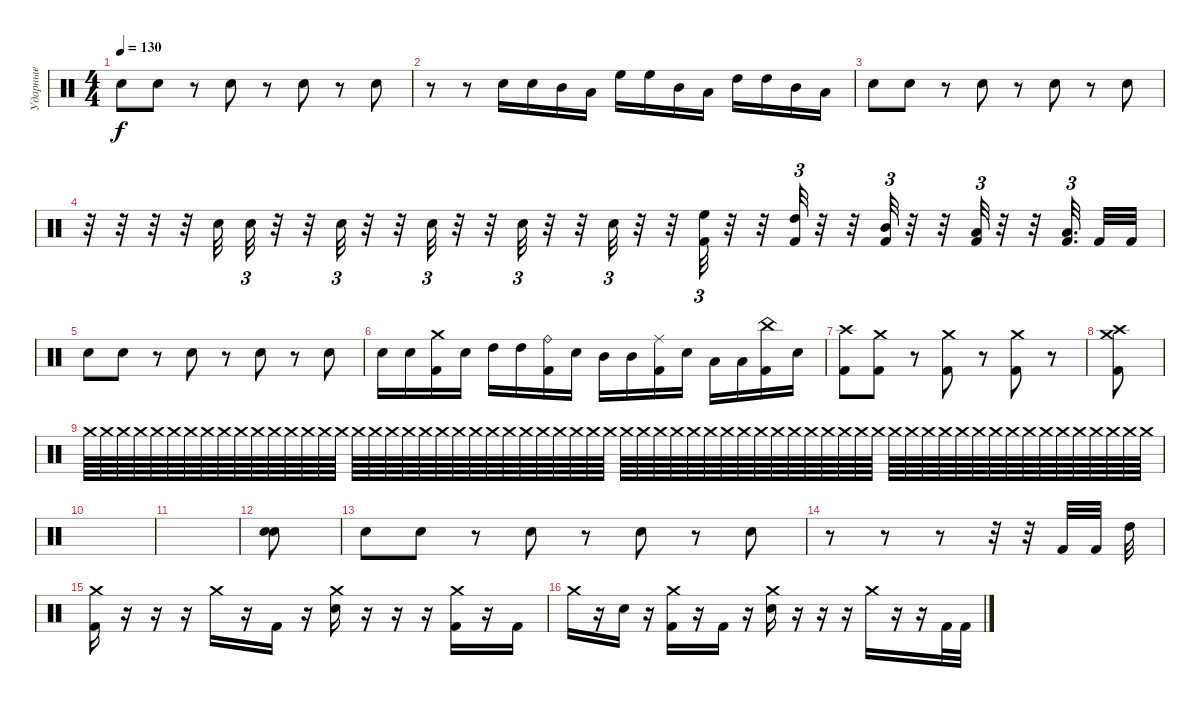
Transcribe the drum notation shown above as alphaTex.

\track ("Ударные" "Ударные") {instrument percussion}
\staff {score}
\articulation defaults
\ts (4 4)
\tempo 130
\clef neutral
\ks c "Electric Snare (hit)".8{dy f} "Electric Snare (hit)".8
r.8 "Electric Snare (hit)".8 r.8 "Electric Snare (hit)".8 r.8 "Electric Snare (hit)".8 |
r.8 r.8 "Electric Snare (hit)".16 "Electric Snare (hit)".16 "Mid Tom (hit)".16 "Low Tom (hit)".16 "High Floor Tom (hit)".16 "High Floor Tom (hit)".16 "Mid Tom (hit)".16 "Low Tom (hit)".16 "High Tom (hit)".16 "High Tom (hit)".16 "Mid Tom (hit)".16 "Low Tom (hit)".16 |
"Electric Snare (hit)".8 "Electric Snare (hit)".8 r.8 "Electric Snare (hit)".8 r.8 "Electric Snare (hit)".8 r.8 "Electric Snare (hit)".8 |
r.32 r.32 r.32 r.32 "Snare (hit) 2".32 "Snare (hit) 2".32{tu (3 2)} r.32 r.32 "Snare (hit) 2".32{tu (3 2)} r.32 r.32 "Snare (hit) 2".32{tu (3 2)} r.32 r.32 "Snare (hit) 2".32{tu (3 2)} r.32 r.32 "Snare (hit) 2".32{tu (3 2)} r.32 r.32 ("High Floor Tom (hit)" "Kick (hit) 2").32{tu (3 2)} r.32 r.32 ("High Tom (hit)" "Kick (hit) 2").32{tu (3 2)} r.32 r.32 ("Mid Tom (hit)" "Kick (hit) 2").32{tu (3 2)} r.32 r.32 ("Low Tom (hit)" "Kick (hit) 2").32{tu (3 2)} r.32 r.32 ("Low Tom (hit)" "Kick (hit) 2").32{d tu (3 2) beam splitsecondary} "Kick (hit) 2".32 "Kick (hit) 2".32 |
"Electric Snare (hit)".8 "Electric Snare (hit)".8 r.8 "Electric Snare (hit)".8 r.8 "Electric Snare (hit)".8 r.8 "Electric Snare (hit)".8 |
"Electric Snare (hit)".16 "Electric Snare (hit)".16 ("Crash medium (hit)" "Kick (hit) 2").16 "Electric Snare (hit)".16 "High Tom (hit)".16 "High Tom (hit)".16 ("Ride (bell)" "Kick (hit) 2").16 "Electric Snare (hit)".16 "Mid Tom (hit)".16 "Mid Tom (hit)".16 ("Ride (middle)" "Kick (hit) 2").16 "Electric Snare (hit)".16 "Low Tom (hit)".16 "Low Tom (hit)".16 ("China (hit)" "Kick (hit) 2").16 "Electric Snare (hit)".16 |
("Crash high (hit)" "Kick (hit) 2").8 ("Crash medium (hit)" "Kick (hit) 2").8 r.8 ("Crash medium (hit)" "Kick (hit) 2").8 r.8 ("Crash medium (hit)" "Kick (hit) 2").8 r.8 |
("Kick (hit) 2" "Crash medium (hit)" "Crash high (hit)").8 |
"Crash medium (hit)".64{volume 1} "Crash medium (hit)".64{volume 1} "Crash medium (hit)".64{volume 1} "Crash medium (hit)".64{volume 1} "Crash medium (hit)".64{volume 2} "Crash medium (hit)".64{volume 2} "Crash medium (hit)".64{volume 2} "Crash medium (hit)".64{volume 2} "Crash medium (hit)".64{volume 3} "Crash medium (hit)".64{volume 3} "Crash medium (hit)".64{volume 3} "Crash medium (hit)".64{volume 3} "Crash medium (hit)".64{volume 4} "Crash medium (hit)".64{volume 4} "Crash medium (hit)".64{volume 4} "Crash medium (hit)".64{volume 4} "Crash medium (hit)".64{volume 5} "Crash medium (hit)".64{volume 5} "Crash medium (hit)".64{volume 5} "Crash medium (hit)".64{volume 5} "Crash medium (hit)".64{volume 6} "Crash medium (hit)".64{volume 6} "Crash medium (hit)".64{volume 6} "Crash medium (hit)".64{volume 6} "Crash medium (hit)".64{volume 7} "Crash medium (hit)".64{volume 7} "Crash medium (hit)".64{volume 7} "Crash medium (hit)".64{volume 7} "Crash medium (hit)".64{volume 7} "Crash medium (hit)".64{volume 8} "Crash medium (hit)".64{volume 8} "Crash medium (hit)".64{volume 8} "Crash medium (hit)".64{volume 8} "Crash medium (hit)".64{volume 9} "Crash medium (hit)".64{volume 9} "Crash medium (hit)".64{volume 9} "Crash medium (hit)".64{volume 9} "Crash medium (hit)".64{volume 10} "Crash medium (hit)".64{volume 10} "Crash medium (hit)".64{volume 10} "Crash medium (hit)".64{volume 10} "Crash medium (hit)".64 "Crash medium (hit)".64 "Crash medium (hit)".64 "Crash medium (hit)".64 "Crash medium (hit)".64 "Crash medium (hit)".64 "Crash medium (hit)".64 "Crash medium (hit)".64 "Crash medium (hit)".64 "Crash medium (hit)".64 "Crash medium (hit)".64 "Crash medium (hit)".64 "Crash medium (hit)".64 "Crash medium (hit)".64 "Crash medium (hit)".64 "Crash medium (hit)".64 "Crash medium (hit)".64 "Crash medium (hit)".64 "Crash medium (hit)".64 "Crash medium (hit)".64 "Crash medium (hit)".64 "Crash medium (hit)".64 "Crash medium (hit)".64 |
|
|
("Snare (hit) 2" "Electric Snare (hit)").8{volume 16} |
"Electric Snare (hit)".8 "Electric Snare (hit)".8 r.8 "Electric Snare (hit)".8 r.8 "Electric Snare (hit)".8 r.8 "Electric Snare (hit)".8 |
r.8 r.8 r.8 r.32 r.32 "Kick (hit) 2".32 "Kick (hit) 2".32 "High Tom (hit)".32 |
("Crash medium (hit)" "Kick (hit) 2").16 r.16 r.16 r.16 "Crash medium (hit)".16 r.16 "Kick (hit) 2".16 r.16 ("Crash medium (hit)" "Electric Snare (hit)").16 r.16 r.16 r.16 ("Crash medium (hit)" "Kick (hit) 2").16 r.16 "Kick (hit) 2".16 |
"Crash medium (hit)".16 r.16 "Electric Snare (hit)".16 r.16 ("Crash medium (hit)" "Kick (hit) 2").16 r.16 "Kick (hit) 2".16 r.16 ("Crash medium (hit)" "Electric Snare (hit)").16 r.16 r.16 r.16 "Crash medium (hit)".16 r.16 r.16 "Kick (hit) 2".32 "Kick (hit) 2".32
